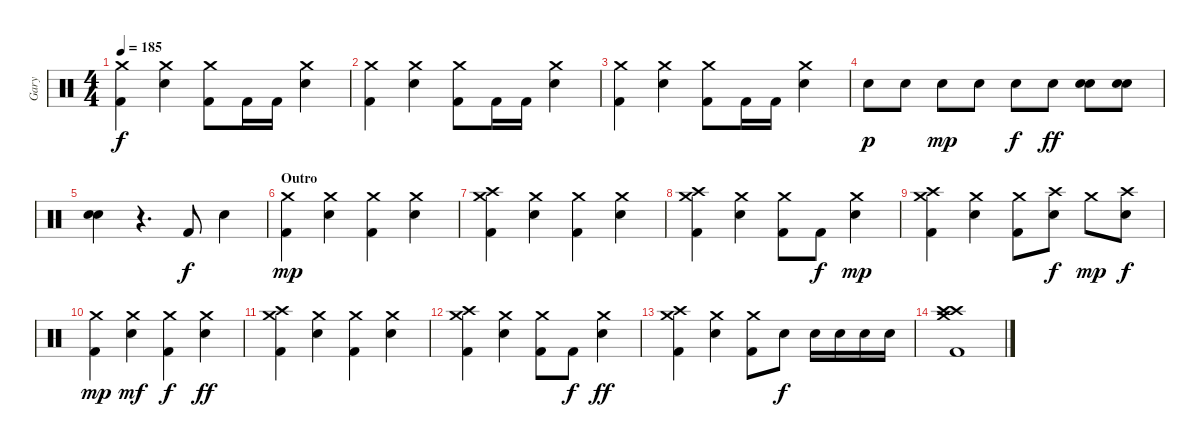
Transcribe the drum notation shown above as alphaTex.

\track ("Gary" "Gary") {instrument percussion}
\staff {score}
\articulation defaults
\ts (4 4)
\tempo 185
\clef neutral
\ks c
("Kick (hit) 2" "Crash medium (hit)").4{dy f} ("Electric Snare (hit)" "Crash medium (hit)").4 ("Kick (hit) 2" "Crash medium (hit)").8 "Kick (hit) 2".16 "Kick (hit) 2".16 ("Electric Snare (hit)" "Crash medium (hit)").4 |
("Kick (hit) 2" "Crash medium (hit)").4 ("Electric Snare (hit)" "Crash medium (hit)").4 ("Kick (hit) 2" "Crash medium (hit)").8 "Kick (hit) 2".16 "Kick (hit) 2".16 ("Electric Snare (hit)" "Crash medium (hit)").4 |
("Kick (hit) 2" "Crash medium (hit)").4 ("Electric Snare (hit)" "Crash medium (hit)").4 ("Kick (hit) 2" "Crash medium (hit)").8 "Kick (hit) 2".16 "Kick (hit) 2".16 ("Electric Snare (hit)" "Crash medium (hit)").4 |
"Electric Snare (hit)".8{dy p} "Electric Snare (hit)".8 "Electric Snare (hit)".8{dy mp} "Electric Snare (hit)".8 "Electric Snare (hit)".8{dy f} "Electric Snare (hit)".8{dy ff} ("Electric Snare (hit)" "Electric Snare (hit)").8 ("Electric Snare (hit)" "Electric Snare (hit)").8 |
("Electric Snare (hit)" "Electric Snare (hit)").4 r.4{d} "Kick (hit) 2".8{dy f} "Electric Snare (hit)".4 |
\section ("" "Outro")
("Kick (hit) 2" "Crash medium (hit)").4{dy mp} ("Electric Snare (hit)" "Crash medium (hit)").4 ("Kick (hit) 2" "Crash medium (hit)").4 ("Electric Snare (hit)" "Crash medium (hit)").4 |
("Crash high (hit)" "Kick (hit) 2" "Crash medium (hit)").4 ("Electric Snare (hit)" "Crash medium (hit)").4 ("Kick (hit) 2" "Crash medium (hit)").4 ("Electric Snare (hit)" "Crash medium (hit)").4 |
("Crash high (hit)" "Kick (hit) 2" "Crash medium (hit)").4 ("Electric Snare (hit)" "Crash medium (hit)").4 ("Kick (hit) 2" "Crash medium (hit)").8 "Kick (hit) 2".8{dy f} ("Electric Snare (hit)" "Crash medium (hit)").4{dy mp} |
("Crash high (hit)" "Kick (hit) 2" "Crash medium (hit)").4 ("Electric Snare (hit)" "Crash medium (hit)").4 ("Kick (hit) 2" "Crash medium (hit)").8 ("Crash high (hit)" "Electric Snare (hit)").8{dy f} "Crash medium (hit)".8{dy mp} ("Crash high (hit)" "Electric Snare (hit)").8{dy f} |
("Kick (hit) 2" "Crash medium (hit)").4{dy mp} ("Electric Snare (hit)" "Crash medium (hit)").4{dy mf} ("Kick (hit) 2" "Crash medium (hit)").4{dy f} ("Electric Snare (hit)" "Crash medium (hit)").4{dy ff} |
("Crash high (hit)" "Kick (hit) 2" "Crash medium (hit)").4 ("Electric Snare (hit)" "Crash medium (hit)").4 ("Kick (hit) 2" "Crash medium (hit)").4 ("Electric Snare (hit)" "Crash medium (hit)").4 |
("Crash high (hit)" "Kick (hit) 2" "Crash medium (hit)").4 ("Electric Snare (hit)" "Crash medium (hit)").4 ("Kick (hit) 2" "Crash medium (hit)").8 "Kick (hit) 2".8{dy f} ("Electric Snare (hit)" "Crash medium (hit)").4{dy ff} |
("Crash high (hit)" "Kick (hit) 2" "Crash medium (hit)").4 ("Electric Snare (hit)" "Crash medium (hit)").4 ("Kick (hit) 2" "Crash medium (hit)").8 "Electric Snare (hit)".8{dy f} "Electric Snare (hit)".16 "Electric Snare (hit)".16 "Electric Snare (hit)".16 "Electric Snare (hit)".16 |
("Crash high (hit)" "Crash high (hit)" "Kick (hit) 2" "Crash medium (hit)").1
